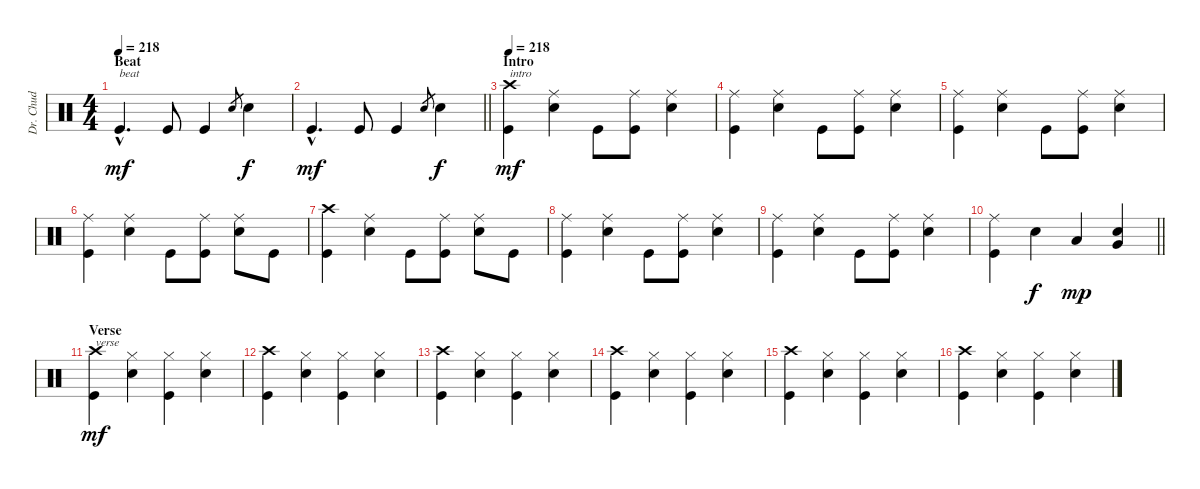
\track ("Dr. Chud" "Dr. Chud") {instrument percussion}
\staff {score}
\articulation defaults
\ts (4 4)
\section ("" "Beat")
\tempo 218
\tempo 152
\tempo 218
\clef neutral
\ks c "Kick (hit)"{hac}.4{d txt "beat" dy mf} "Kick (hit)".8 "Kick (hit)".4 "Electric Snare (hit)".8{gr} "Electric Snare (hit)".4{dy f}
|
\barLineRight lightlight "Kick (hit)"{hac}.4{d dy mf} "Kick (hit)".8 "Kick (hit)".4 "Electric Snare (hit)".8{gr} "Electric Snare (hit)".4{dy f}
|
\section ("" "Intro")
\tempo 218
("Crash high (hit)" "Kick (hit)").4{txt "intro" dy mf} ("Ride (middle)" "Electric Snare (hit)").4 "Kick (hit)".8 ("Ride (middle)" "Kick (hit)").8 ("Ride (middle)" "Electric Snare (hit)").4 |
("Ride (middle)" "Kick (hit)").4 ("Ride (middle)" "Electric Snare (hit)").4 "Kick (hit)".8 ("Ride (middle)" "Kick (hit)").8 ("Ride (middle)" "Electric Snare (hit)").4 |
("Ride (middle)" "Kick (hit)").4 ("Ride (middle)" "Electric Snare (hit)").4 "Kick (hit)".8 ("Ride (middle)" "Kick (hit)").8 ("Ride (middle)" "Electric Snare (hit)").4 |
("Ride (middle)" "Kick (hit)").4 ("Ride (middle)" "Electric Snare (hit)").4 "Kick (hit)".8 ("Ride (middle)" "Kick (hit)").8 ("Ride (middle)" "Electric Snare (hit)").8 "Kick (hit)".8 |
("Crash high (hit)" "Kick (hit)").4 ("Ride (middle)" "Electric Snare (hit)").4 "Kick (hit)".8 ("Ride (middle)" "Kick (hit)").8 ("Ride (middle)" "Electric Snare (hit)").8 "Kick (hit)".8 |
("Ride (middle)" "Kick (hit)").4 ("Ride (middle)" "Electric Snare (hit)").4 "Kick (hit)".8 ("Ride (middle)" "Kick (hit)").8 ("Ride (middle)" "Electric Snare (hit)").4 |
("Ride (middle)" "Kick (hit)").4 ("Ride (middle)" "Electric Snare (hit)").4 "Kick (hit)".8 ("Ride (middle)" "Kick (hit)").8 ("Ride (middle)" "Electric Snare (hit)").4 |
\barLineRight lightlight
("Ride (middle)" "Kick (hit)").4 "Electric Snare (hit)".4{dy f} "Low Floor Tom (hit)".4{dy mp} ("Very Low Tom (hit)" "Electric Snare (hit)").4 |
\section ("" "Verse")
("Crash high (hit)" "Kick (hit)").4{txt "verse" dy mf} ("Hi-Hat (closed)" "Electric Snare (hit)").4 ("Hi-Hat (closed)" "Kick (hit)").4 ("Hi-Hat (closed)" "Electric Snare (hit)").4 |
("Crash high (hit)" "Kick (hit)").4 ("Hi-Hat (closed)" "Electric Snare (hit)").4 ("Hi-Hat (closed)" "Kick (hit)").4 ("Hi-Hat (closed)" "Electric Snare (hit)").4 |
("Crash high (hit)" "Kick (hit)").4 ("Hi-Hat (closed)" "Electric Snare (hit)").4 ("Hi-Hat (closed)" "Kick (hit)").4 ("Hi-Hat (closed)" "Electric Snare (hit)").4 |
("Crash high (hit)" "Kick (hit)").4 ("Hi-Hat (closed)" "Electric Snare (hit)").4 ("Hi-Hat (closed)" "Kick (hit)").4 ("Hi-Hat (closed)" "Electric Snare (hit)").4 |
("Crash high (hit)" "Kick (hit)").4 ("Hi-Hat (closed)" "Electric Snare (hit)").4 ("Hi-Hat (closed)" "Kick (hit)").4 ("Hi-Hat (closed)" "Electric Snare (hit)").4 |
("Crash high (hit)" "Kick (hit)").4 ("Hi-Hat (closed)" "Electric Snare (hit)").4 ("Hi-Hat (closed)" "Kick (hit)").4 ("Hi-Hat (closed)" "Electric Snare (hit)").4
